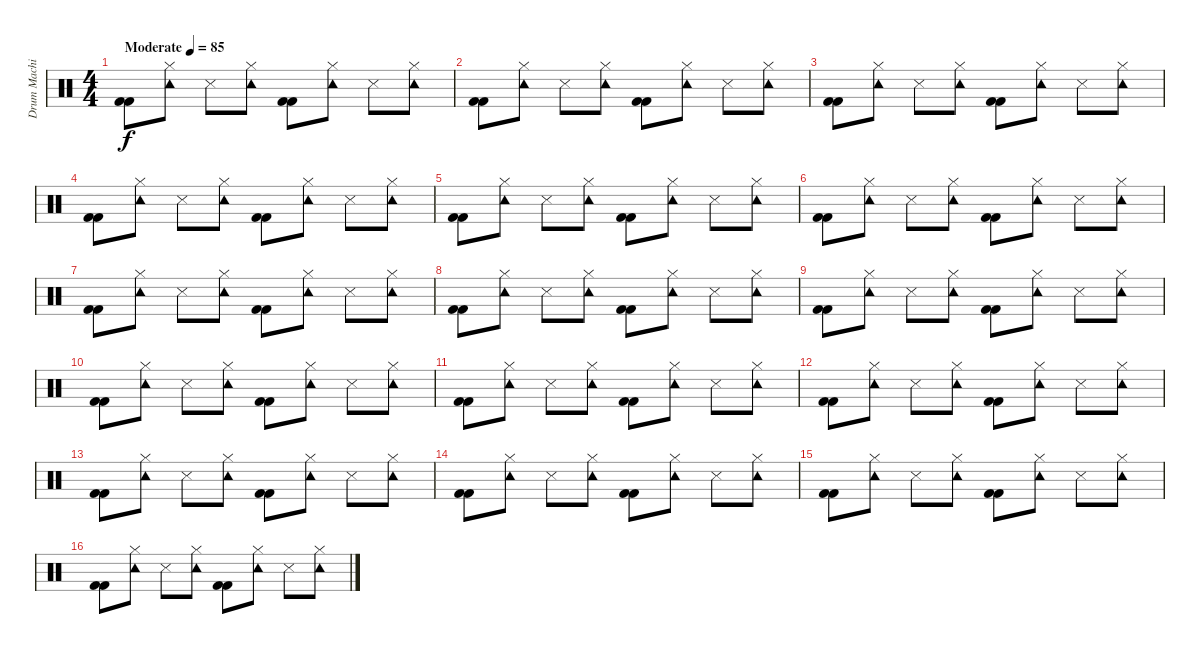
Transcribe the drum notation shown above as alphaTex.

\track ("Drum Machine" "Drum Machi") {instrument percussion}
\staff {score}
\articulation defaults
\ts (4 4)
\tempo (85 "Moderate")
\clef neutral
\ks c
("Kick (hit) 2" "Kick (hit) 2").8{dy f} ("Hi-Hat (closed)" "Tambourine (hit)").8 "Snare (side stick) 3".8 ("Hi-Hat (closed)" "Tambourine (hit)").8 ("Kick (hit) 2" "Kick (hit) 2").8 ("Hi-Hat (closed)" "Tambourine (hit)").8 "Snare (side stick) 3".8 ("Hi-Hat (closed)" "Tambourine (hit)").8 |
("Kick (hit) 2" "Kick (hit) 2").8 ("Hi-Hat (closed)" "Tambourine (hit)").8 "Snare (side stick) 3".8 ("Hi-Hat (closed)" "Tambourine (hit)").8 ("Kick (hit) 2" "Kick (hit) 2").8 ("Hi-Hat (closed)" "Tambourine (hit)").8 "Snare (side stick) 3".8 ("Hi-Hat (closed)" "Tambourine (hit)").8 |
("Kick (hit) 2" "Kick (hit) 2").8 ("Hi-Hat (closed)" "Tambourine (hit)").8 "Snare (side stick) 3".8 ("Hi-Hat (closed)" "Tambourine (hit)").8 ("Kick (hit) 2" "Kick (hit) 2").8 ("Hi-Hat (closed)" "Tambourine (hit)").8 "Snare (side stick) 3".8 ("Hi-Hat (closed)" "Tambourine (hit)").8 |
("Kick (hit) 2" "Kick (hit) 2").8 ("Hi-Hat (closed)" "Tambourine (hit)").8 "Snare (side stick) 3".8 ("Hi-Hat (closed)" "Tambourine (hit)").8 ("Kick (hit) 2" "Kick (hit) 2").8 ("Hi-Hat (closed)" "Tambourine (hit)").8 "Snare (side stick) 3".8 ("Hi-Hat (closed)" "Tambourine (hit)").8 |
("Kick (hit) 2" "Kick (hit) 2").8 ("Hi-Hat (closed)" "Tambourine (hit)").8 "Snare (side stick) 3".8 ("Hi-Hat (closed)" "Tambourine (hit)").8 ("Kick (hit) 2" "Kick (hit) 2").8 ("Hi-Hat (closed)" "Tambourine (hit)").8 "Snare (side stick) 3".8 ("Hi-Hat (closed)" "Tambourine (hit)").8 |
("Kick (hit) 2" "Kick (hit) 2").8 ("Hi-Hat (closed)" "Tambourine (hit)").8 "Snare (side stick) 3".8 ("Hi-Hat (closed)" "Tambourine (hit)").8 ("Kick (hit) 2" "Kick (hit) 2").8 ("Hi-Hat (closed)" "Tambourine (hit)").8 "Snare (side stick) 3".8 ("Hi-Hat (closed)" "Tambourine (hit)").8 |
("Kick (hit) 2" "Kick (hit) 2").8 ("Hi-Hat (closed)" "Tambourine (hit)").8 "Snare (side stick) 3".8 ("Hi-Hat (closed)" "Tambourine (hit)").8 ("Kick (hit) 2" "Kick (hit) 2").8 ("Hi-Hat (closed)" "Tambourine (hit)").8 "Snare (side stick) 3".8 ("Hi-Hat (closed)" "Tambourine (hit)").8 |
("Kick (hit) 2" "Kick (hit) 2").8 ("Hi-Hat (closed)" "Tambourine (hit)").8 "Snare (side stick) 3".8 ("Hi-Hat (closed)" "Tambourine (hit)").8 ("Kick (hit) 2" "Kick (hit) 2").8 ("Hi-Hat (closed)" "Tambourine (hit)").8 "Snare (side stick) 3".8 ("Hi-Hat (closed)" "Tambourine (hit)").8 |
("Kick (hit) 2" "Kick (hit) 2").8 ("Hi-Hat (closed)" "Tambourine (hit)").8 "Snare (side stick) 3".8 ("Hi-Hat (closed)" "Tambourine (hit)").8 ("Kick (hit) 2" "Kick (hit) 2").8 ("Hi-Hat (closed)" "Tambourine (hit)").8 "Snare (side stick) 3".8 ("Hi-Hat (closed)" "Tambourine (hit)").8 |
("Kick (hit) 2" "Kick (hit) 2").8 ("Hi-Hat (closed)" "Tambourine (hit)").8 "Snare (side stick) 3".8 ("Hi-Hat (closed)" "Tambourine (hit)").8 ("Kick (hit) 2" "Kick (hit) 2").8 ("Hi-Hat (closed)" "Tambourine (hit)").8 "Snare (side stick) 3".8 ("Hi-Hat (closed)" "Tambourine (hit)").8 |
("Kick (hit) 2" "Kick (hit) 2").8 ("Hi-Hat (closed)" "Tambourine (hit)").8 "Snare (side stick) 3".8 ("Hi-Hat (closed)" "Tambourine (hit)").8 ("Kick (hit) 2" "Kick (hit) 2").8 ("Hi-Hat (closed)" "Tambourine (hit)").8 "Snare (side stick) 3".8 ("Hi-Hat (closed)" "Tambourine (hit)").8 |
("Kick (hit) 2" "Kick (hit) 2").8 ("Hi-Hat (closed)" "Tambourine (hit)").8 "Snare (side stick) 3".8 ("Hi-Hat (closed)" "Tambourine (hit)").8 ("Kick (hit) 2" "Kick (hit) 2").8 ("Hi-Hat (closed)" "Tambourine (hit)").8 "Snare (side stick) 3".8 ("Hi-Hat (closed)" "Tambourine (hit)").8 |
("Kick (hit) 2" "Kick (hit) 2").8 ("Hi-Hat (closed)" "Tambourine (hit)").8 "Snare (side stick) 3".8 ("Hi-Hat (closed)" "Tambourine (hit)").8 ("Kick (hit) 2" "Kick (hit) 2").8 ("Hi-Hat (closed)" "Tambourine (hit)").8 "Snare (side stick) 3".8 ("Hi-Hat (closed)" "Tambourine (hit)").8 |
("Kick (hit) 2" "Kick (hit) 2").8 ("Hi-Hat (closed)" "Tambourine (hit)").8 "Snare (side stick) 3".8 ("Hi-Hat (closed)" "Tambourine (hit)").8 ("Kick (hit) 2" "Kick (hit) 2").8 ("Hi-Hat (closed)" "Tambourine (hit)").8 "Snare (side stick) 3".8 ("Hi-Hat (closed)" "Tambourine (hit)").8 |
("Kick (hit) 2" "Kick (hit) 2").8 ("Hi-Hat (closed)" "Tambourine (hit)").8 "Snare (side stick) 3".8 ("Hi-Hat (closed)" "Tambourine (hit)").8 ("Kick (hit) 2" "Kick (hit) 2").8 ("Hi-Hat (closed)" "Tambourine (hit)").8 "Snare (side stick) 3".8 ("Hi-Hat (closed)" "Tambourine (hit)").8 |
("Kick (hit) 2" "Kick (hit) 2").8 ("Hi-Hat (closed)" "Tambourine (hit)").8 "Snare (side stick) 3".8 ("Hi-Hat (closed)" "Tambourine (hit)").8 ("Kick (hit) 2" "Kick (hit) 2").8 ("Hi-Hat (closed)" "Tambourine (hit)").8 "Snare (side stick) 3".8 ("Hi-Hat (closed)" "Tambourine (hit)").8
